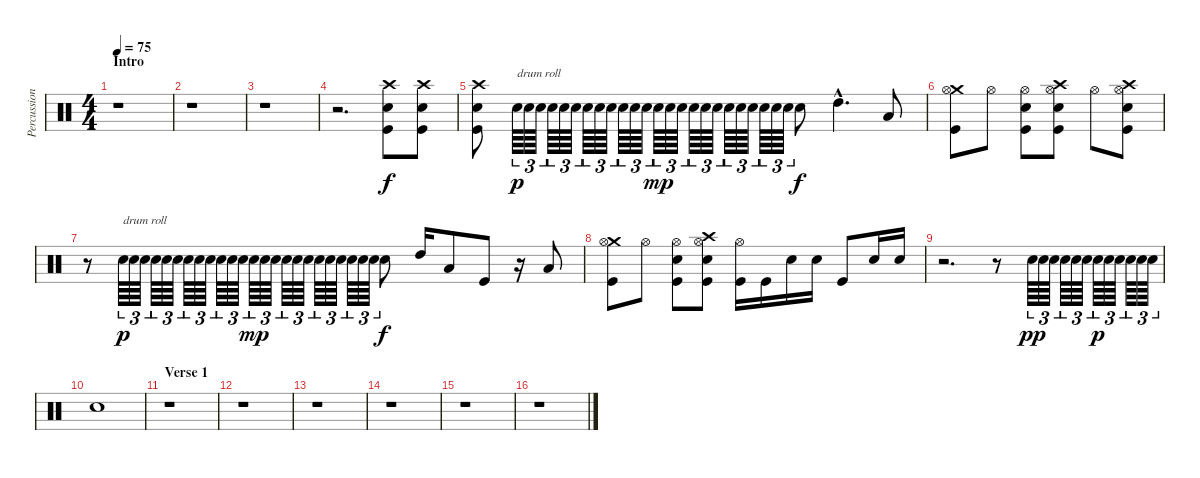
\track ("Percussion - Adam Topol" "Percussion") {instrument percussion}
\staff {score}
\articulation defaults
\ts (4 4)
\section ("" "Intro")
\tempo 75
\clef neutral
\ks c
r.1{dy f} |
r.1 |
r.1 |
r.2{d} ("Crash high (hit)" "Electric Snare (hit)" "Kick (hit)").8 ("Crash high (hit)" "Electric Snare (hit)" "Kick (hit)").8 |
("Crash high (hit)" "Electric Snare (hit)" "Kick (hit)").8 "Electric Snare (hit)".64{tu (3 2) txt "drum roll" dy p} "Electric Snare (hit)".64{tu (3 2)} "Electric Snare (hit)".64{tu (3 2)} "Electric Snare (hit)".64{tu (3 2)} "Electric Snare (hit)".64{tu (3 2)} "Electric Snare (hit)".64{tu (3 2)} "Electric Snare (hit)".64{tu (3 2)} "Electric Snare (hit)".64{tu (3 2)} "Electric Snare (hit)".64{tu (3 2)} "Electric Snare (hit)".64{tu (3 2)} "Electric Snare (hit)".64{tu (3 2)} "Electric Snare (hit)".64{tu (3 2)} "Electric Snare (hit)".64{tu (3 2) dy mp} "Electric Snare (hit)".64{tu (3 2)} "Electric Snare (hit)".64{tu (3 2)} "Electric Snare (hit)".64{tu (3 2)} "Electric Snare (hit)".64{tu (3 2)} "Electric Snare (hit)".64{tu (3 2)} "Electric Snare (hit)".64{tu (3 2)} "Electric Snare (hit)".64{tu (3 2)} "Electric Snare (hit)".64{tu (3 2)} "Electric Snare (hit)".64{tu (3 2)} "Electric Snare (hit)".64{tu (3 2)} "Electric Snare (hit)".64{tu (3 2)} "Electric Snare (hit)".8{dy f} "High Tom (hit)"{hac}.4{d} "Low Floor Tom (hit)".8 |
("Crash medium (hit)" "Hi-Hat (open)" "Kick (hit)").8 "Hi-Hat (open)".8 ("Hi-Hat (open)" "Snare (hit) 2" "Kick (hit)").8 ("Crash high (hit)" "Hi-Hat (open)" "Snare (hit) 2" "Kick (hit)").8 "Hi-Hat (open)".8 ("Crash high (hit)" "Hi-Hat (open)" "Snare (hit) 2" "Kick (hit)").8 |
r.8 "Electric Snare (hit)".64{tu (3 2) txt "drum roll" dy p} "Electric Snare (hit)".64{tu (3 2)} "Electric Snare (hit)".64{tu (3 2)} "Electric Snare (hit)".64{tu (3 2)} "Electric Snare (hit)".64{tu (3 2)} "Electric Snare (hit)".64{tu (3 2)} "Electric Snare (hit)".64{tu (3 2)} "Electric Snare (hit)".64{tu (3 2)} "Electric Snare (hit)".64{tu (3 2)} "Electric Snare (hit)".64{tu (3 2)} "Electric Snare (hit)".64{tu (3 2)} "Electric Snare (hit)".64{tu (3 2)} "Electric Snare (hit)".64{tu (3 2) dy mp} "Electric Snare (hit)".64{tu (3 2)} "Electric Snare (hit)".64{tu (3 2)} "Electric Snare (hit)".64{tu (3 2)} "Electric Snare (hit)".64{tu (3 2)} "Electric Snare (hit)".64{tu (3 2)} "Electric Snare (hit)".64{tu (3 2)} "Electric Snare (hit)".64{tu (3 2)} "Electric Snare (hit)".64{tu (3 2)} "Electric Snare (hit)".64{tu (3 2)} "Electric Snare (hit)".64{tu (3 2)} "Electric Snare (hit)".64{tu (3 2)} "Electric Snare (hit)".8{dy f} "High Tom (hit)".16 "Low Tom (hit)".8 "Kick (hit)".8 r.16 "Low Floor Tom (hit)".8 |
("Crash medium (hit)" "Hi-Hat (open)" "Kick (hit)").8 "Hi-Hat (open)".8 ("Hi-Hat (open)" "Electric Snare (hit)" "Kick (hit)").8 ("Crash high (hit)" "Hi-Hat (open)" "Electric Snare (hit)" "Kick (hit)").8 ("Hi-Hat (open)" "Kick (hit)").16 "Kick (hit)".16 "Electric Snare (hit)".16 "Electric Snare (hit)".16 "Kick (hit)".8 "Electric Snare (hit)".16 "Electric Snare (hit)".16 |
r.2{d} r.8 "Electric Snare (hit)".64{tu (3 2) dy pp} "Electric Snare (hit)".64{tu (3 2)} "Electric Snare (hit)".64{tu (3 2)} "Electric Snare (hit)".64{tu (3 2)} "Electric Snare (hit)".64{tu (3 2)} "Electric Snare (hit)".64{tu (3 2)} "Electric Snare (hit)".64{tu (3 2) dy p} "Electric Snare (hit)".64{tu (3 2)} "Electric Snare (hit)".64{tu (3 2)} "Electric Snare (hit)".64{tu (3 2)} "Electric Snare (hit)".64{tu (3 2)} "Electric Snare (hit)".64{tu (3 2)} |
"Electric Snare (hit)".1 |
\section ("" "Verse 1")
r.1 |
r.1 |
r.1 |
r.1 |
r.1 |
r.1
